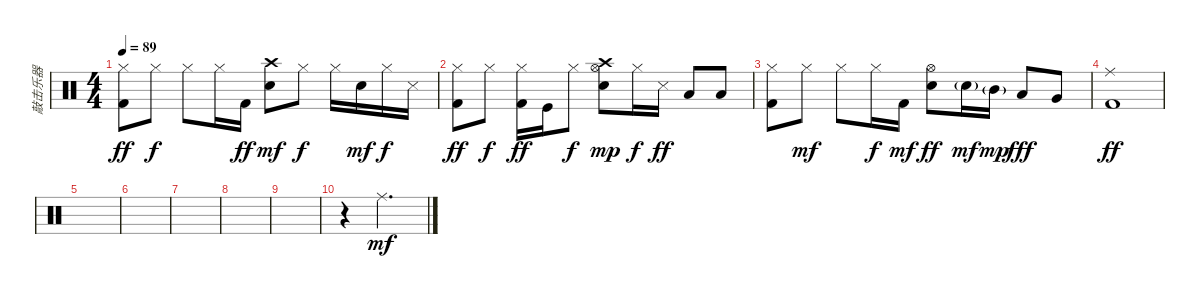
\track ("敲击乐器" "敲击乐器") {instrument percussion}
\staff {score}
\articulation defaults
\ts (4 4)
\tempo 89
\clef neutral
\ks c
("Hi-Hat (closed)" "Kick (hit) 2").8{dy ff} "Hi-Hat (closed)".8{dy f} "Hi-Hat (closed)".8 "Hi-Hat (closed)".16 "Kick (hit) 2".16{dy ff} ("Electric Snare (hit)" "Crash high (hit)").8{dy mf} "Hi-Hat (closed)".8{dy f} "Hi-Hat (closed)".16 "Electric Snare (hit)".16{dy mf} "Hi-Hat (closed)".16{dy f} "Snare (side stick) 3".16 |
("Hi-Hat (closed)" "Kick (hit) 2").8{dy ff} "Hi-Hat (closed)".8{dy f} ("Hi-Hat (closed)" "Kick (hit) 2").16{dy ff} "Kick (hit)".16 "Hi-Hat (closed)".8{dy f} ("Electric Snare (hit)" "Crash high (hit)" "Hi-Hat (open)").8{dy mp} "Hi-Hat (closed)".16{dy f} "Snare (side stick) 3".16{dy ff} "Low Floor Tom (hit)".8 "Low Tom (hit)".8 |
("Hi-Hat (closed)" "Kick (hit) 2").8 "Hi-Hat (closed)".8{dy mf} "Hi-Hat (closed)".8 "Hi-Hat (closed)".16{dy f} "Kick (hit) 2".16{dy mf} ("Electric Snare (hit)" "Hi-Hat (open)").8{dy ff} "Electric Snare (hit)"{g}.16{dy mf} "Mid Tom (hit)"{g}.16{dy mp} "Low Floor Tom (hit)".8{dy fff} "Very Low Tom (hit)".8 |
("Ride (middle)" "Kick (hit) 2").1{dy ff} |
|
|
|
|
|
r.4 "Ride (middle)".2{d dy mf}
